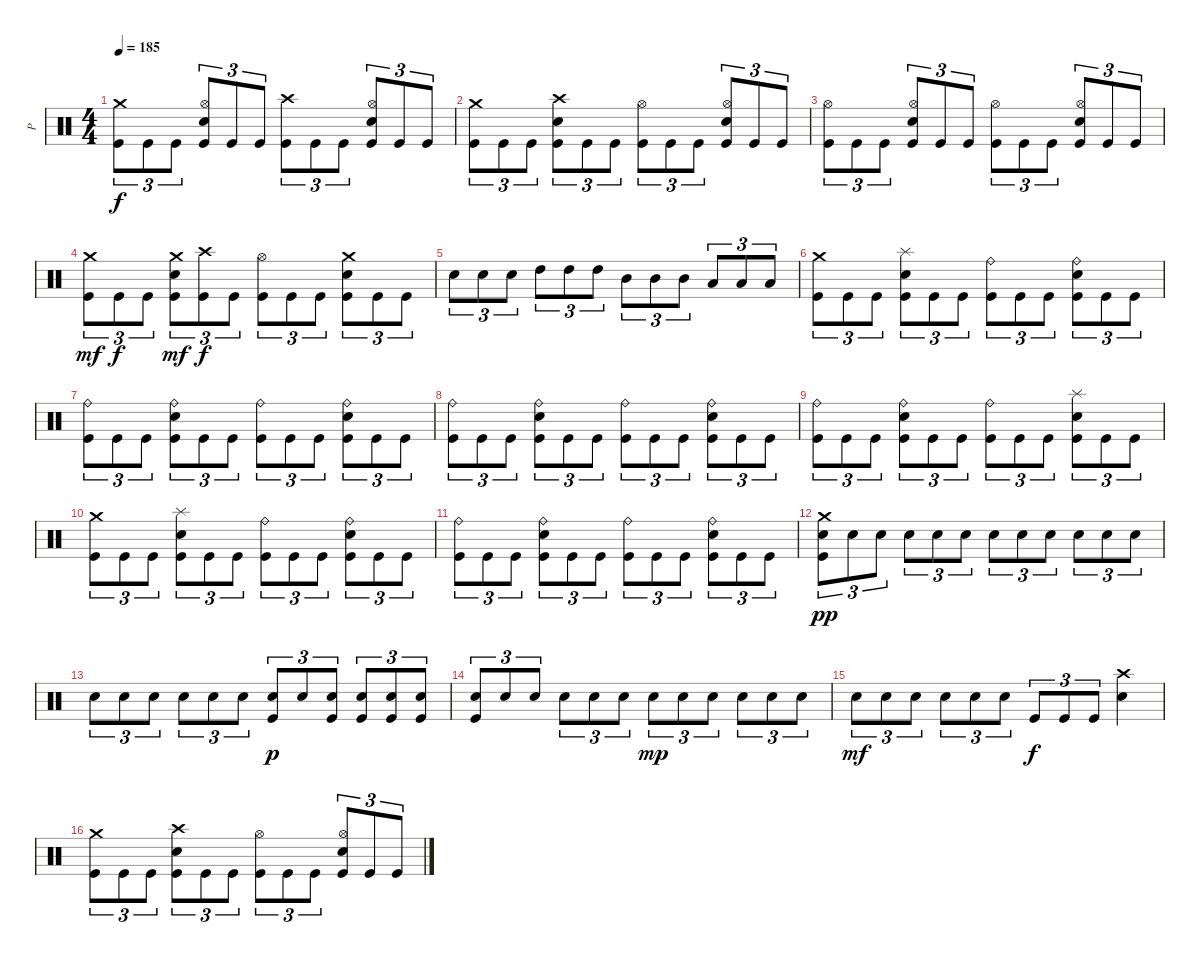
\track ("P" "P") {instrument percussion}
\staff {score}
\articulation defaults
\ts (4 4)
\tempo 185
\clef neutral
\ks c
("Crash medium (hit)" "Kick (hit)").8{tu (3 2) dy f} "Kick (hit)".8{tu (3 2)} "Kick (hit)".8{tu (3 2)} ("Hi-Hat (open)" "Electric Snare (hit)" "Kick (hit)").8{tu (3 2)} "Kick (hit)".8{tu (3 2)} "Kick (hit)".8{tu (3 2)} ("Crash high (hit)" "Kick (hit)").8{tu (3 2)} "Kick (hit)".8{tu (3 2)} "Kick (hit)".8{tu (3 2)} ("Hi-Hat (open)" "Electric Snare (hit)" "Kick (hit)").8{tu (3 2)} "Kick (hit)".8{tu (3 2)} "Kick (hit)".8{tu (3 2)} |
("Crash medium (hit)" "Kick (hit)").8{tu (3 2)} "Kick (hit)".8{tu (3 2)} "Kick (hit)".8{tu (3 2)} ("Crash high (hit)" "Electric Snare (hit)" "Kick (hit)").8{tu (3 2)} "Kick (hit)".8{tu (3 2)} "Kick (hit)".8{tu (3 2)} ("Hi-Hat (open)" "Kick (hit)").8{tu (3 2)} "Kick (hit)".8{tu (3 2)} "Kick (hit)".8{tu (3 2)} ("Hi-Hat (open)" "Electric Snare (hit)" "Kick (hit)").8{tu (3 2)} "Kick (hit)".8{tu (3 2)} "Kick (hit)".8{tu (3 2)} |
("Hi-Hat (open)" "Kick (hit)").8{tu (3 2)} "Kick (hit)".8{tu (3 2)} "Kick (hit)".8{tu (3 2)} ("Hi-Hat (open)" "Electric Snare (hit)" "Kick (hit)").8{tu (3 2)} "Kick (hit)".8{tu (3 2)} "Kick (hit)".8{tu (3 2)} ("Hi-Hat (open)" "Kick (hit)").8{tu (3 2)} "Kick (hit)".8{tu (3 2)} "Kick (hit)".8{tu (3 2)} ("Hi-Hat (open)" "Electric Snare (hit)" "Kick (hit)").8{tu (3 2)} "Kick (hit)".8{tu (3 2)} "Kick (hit)".8{tu (3 2)} |
("Crash medium (hit)" "Kick (hit)").8{tu (3 2) dy mf} "Kick (hit)".8{tu (3 2) dy f} "Kick (hit)".8{tu (3 2)} ("Crash medium (hit)" "Electric Snare (hit)" "Kick (hit)").8{tu (3 2) dy mf} ("Crash high (hit)" "Kick (hit)").8{tu (3 2) dy f} "Kick (hit)".8{tu (3 2)} ("Hi-Hat (open)" "Kick (hit)").8{tu (3 2)} "Kick (hit)".8{tu (3 2)} "Kick (hit)".8{tu (3 2)} ("Crash medium (hit)" "Electric Snare (hit)" "Kick (hit)").8{tu (3 2)} "Kick (hit)".8{tu (3 2)} "Kick (hit)".8{tu (3 2)} |
"Electric Snare (hit)".8{tu (3 2)} "Electric Snare (hit)".8{tu (3 2)} "Electric Snare (hit)".8{tu (3 2)} "High Tom (hit)".8{tu (3 2)} "High Tom (hit)".8{tu (3 2)} "High Tom (hit)".8{tu (3 2)} "Mid Tom (hit)".8{tu (3 2)} "Mid Tom (hit)".8{tu (3 2)} "Mid Tom (hit)".8{tu (3 2)} "Low Tom (hit)".8{tu (3 2)} "Low Tom (hit)".8{tu (3 2)} "Low Tom (hit)".8{tu (3 2)} |
("Crash medium (hit)" "Kick (hit)").8{tu (3 2)} "Kick (hit)".8{tu (3 2)} "Kick (hit)".8{tu (3 2)} ("Splash (hit)" "Electric Snare (hit)" "Kick (hit)").8{tu (3 2)} "Kick (hit)".8{tu (3 2)} "Kick (hit)".8{tu (3 2)} ("Ride (bell)" "Kick (hit)").8{tu (3 2)} "Kick (hit)".8{tu (3 2)} "Kick (hit)".8{tu (3 2)} ("Ride (bell)" "Electric Snare (hit)" "Kick (hit)").8{tu (3 2)} "Kick (hit)".8{tu (3 2)} "Kick (hit)".8{tu (3 2)} |
("Ride (bell)" "Kick (hit)").8{tu (3 2)} "Kick (hit)".8{tu (3 2)} "Kick (hit)".8{tu (3 2)} ("Ride (bell)" "Electric Snare (hit)" "Kick (hit)").8{tu (3 2)} "Kick (hit)".8{tu (3 2)} "Kick (hit)".8{tu (3 2)} ("Ride (bell)" "Kick (hit)").8{tu (3 2)} "Kick (hit)".8{tu (3 2)} "Kick (hit)".8{tu (3 2)} ("Ride (bell)" "Electric Snare (hit)" "Kick (hit)").8{tu (3 2)} "Kick (hit)".8{tu (3 2)} "Kick (hit)".8{tu (3 2)} |
("Ride (bell)" "Kick (hit)").8{tu (3 2)} "Kick (hit)".8{tu (3 2)} "Kick (hit)".8{tu (3 2)} ("Ride (bell)" "Electric Snare (hit)" "Kick (hit)").8{tu (3 2)} "Kick (hit)".8{tu (3 2)} "Kick (hit)".8{tu (3 2)} ("Ride (bell)" "Kick (hit)").8{tu (3 2)} "Kick (hit)".8{tu (3 2)} "Kick (hit)".8{tu (3 2)} ("Ride (bell)" "Electric Snare (hit)" "Kick (hit)").8{tu (3 2)} "Kick (hit)".8{tu (3 2)} "Kick (hit)".8{tu (3 2)} |
("Ride (bell)" "Kick (hit)").8{tu (3 2)} "Kick (hit)".8{tu (3 2)} "Kick (hit)".8{tu (3 2)} ("Ride (bell)" "Electric Snare (hit)" "Kick (hit)").8{tu (3 2)} "Kick (hit)".8{tu (3 2)} "Kick (hit)".8{tu (3 2)} ("Ride (bell)" "Kick (hit)").8{tu (3 2)} "Kick (hit)".8{tu (3 2)} "Kick (hit)".8{tu (3 2)} ("Splash (hit)" "Electric Snare (hit)" "Kick (hit)").8{tu (3 2)} "Kick (hit)".8{tu (3 2)} "Kick (hit)".8{tu (3 2)} |
("Crash medium (hit)" "Kick (hit)").8{tu (3 2)} "Kick (hit)".8{tu (3 2)} "Kick (hit)".8{tu (3 2)} ("Splash (hit)" "Electric Snare (hit)" "Kick (hit)").8{tu (3 2)} "Kick (hit)".8{tu (3 2)} "Kick (hit)".8{tu (3 2)} ("Ride (bell)" "Kick (hit)").8{tu (3 2)} "Kick (hit)".8{tu (3 2)} "Kick (hit)".8{tu (3 2)} ("Ride (bell)" "Electric Snare (hit)" "Kick (hit)").8{tu (3 2)} "Kick (hit)".8{tu (3 2)} "Kick (hit)".8{tu (3 2)} |
("Ride (bell)" "Kick (hit)").8{tu (3 2)} "Kick (hit)".8{tu (3 2)} "Kick (hit)".8{tu (3 2)} ("Ride (bell)" "Electric Snare (hit)" "Kick (hit)").8{tu (3 2)} "Kick (hit)".8{tu (3 2)} "Kick (hit)".8{tu (3 2)} ("Ride (bell)" "Kick (hit)").8{tu (3 2)} "Kick (hit)".8{tu (3 2)} "Kick (hit)".8{tu (3 2)} ("Ride (bell)" "Electric Snare (hit)" "Kick (hit)").8{tu (3 2)} "Kick (hit)".8{tu (3 2)} "Kick (hit)".8{tu (3 2)} |
("Crash medium (hit)" "Electric Snare (hit)" "Kick (hit)").8{tu (3 2) dy pp} "Electric Snare (hit)".8{tu (3 2)} "Electric Snare (hit)".8{tu (3 2)} "Electric Snare (hit)".8{tu (3 2)} "Electric Snare (hit)".8{tu (3 2)} "Electric Snare (hit)".8{tu (3 2)} "Electric Snare (hit)".8{tu (3 2)} "Electric Snare (hit)".8{tu (3 2)} "Electric Snare (hit)".8{tu (3 2)} "Electric Snare (hit)".8{tu (3 2)} "Electric Snare (hit)".8{tu (3 2)} "Electric Snare (hit)".8{tu (3 2)} |
"Electric Snare (hit)".8{tu (3 2)} "Electric Snare (hit)".8{tu (3 2)} "Electric Snare (hit)".8{tu (3 2)} "Electric Snare (hit)".8{tu (3 2)} "Electric Snare (hit)".8{tu (3 2)} "Electric Snare (hit)".8{tu (3 2)} ("Electric Snare (hit)" "Kick (hit)").8{tu (3 2) dy p} "Electric Snare (hit)".8{tu (3 2)} ("Electric Snare (hit)" "Kick (hit)").8{tu (3 2)} ("Electric Snare (hit)" "Kick (hit)").8{tu (3 2)} ("Electric Snare (hit)" "Kick (hit)").8{tu (3 2)} ("Electric Snare (hit)" "Kick (hit)").8{tu (3 2)} |
("Electric Snare (hit)" "Kick (hit)").8{tu (3 2)} "Electric Snare (hit)".8{tu (3 2)} "Electric Snare (hit)".8{tu (3 2)} "Electric Snare (hit)".8{tu (3 2)} "Electric Snare (hit)".8{tu (3 2)} "Electric Snare (hit)".8{tu (3 2)} "Electric Snare (hit)".8{tu (3 2) dy mp} "Electric Snare (hit)".8{tu (3 2)} "Electric Snare (hit)".8{tu (3 2)} "Electric Snare (hit)".8{tu (3 2)} "Electric Snare (hit)".8{tu (3 2)} "Electric Snare (hit)".8{tu (3 2)} |
"Electric Snare (hit)".8{tu (3 2) dy mf} "Electric Snare (hit)".8{tu (3 2)} "Electric Snare (hit)".8{tu (3 2)} "Electric Snare (hit)".8{tu (3 2)} "Electric Snare (hit)".8{tu (3 2)} "Electric Snare (hit)".8{tu (3 2)} "Kick (hit)".8{tu (3 2) dy f} "Kick (hit)".8{tu (3 2)} "Kick (hit)".8{tu (3 2)} ("Crash high (hit)" "Electric Snare (hit)").4 |
("Crash medium (hit)" "Kick (hit)").8{tu (3 2)} "Kick (hit)".8{tu (3 2)} "Kick (hit)".8{tu (3 2)} ("Crash high (hit)" "Electric Snare (hit)" "Kick (hit)").8{tu (3 2)} "Kick (hit)".8{tu (3 2)} "Kick (hit)".8{tu (3 2)} ("Hi-Hat (open)" "Kick (hit)").8{tu (3 2)} "Kick (hit)".8{tu (3 2)} "Kick (hit)".8{tu (3 2)} ("Hi-Hat (open)" "Electric Snare (hit)" "Kick (hit)").8{tu (3 2)} "Kick (hit)".8{tu (3 2)} "Kick (hit)".8{tu (3 2)}
